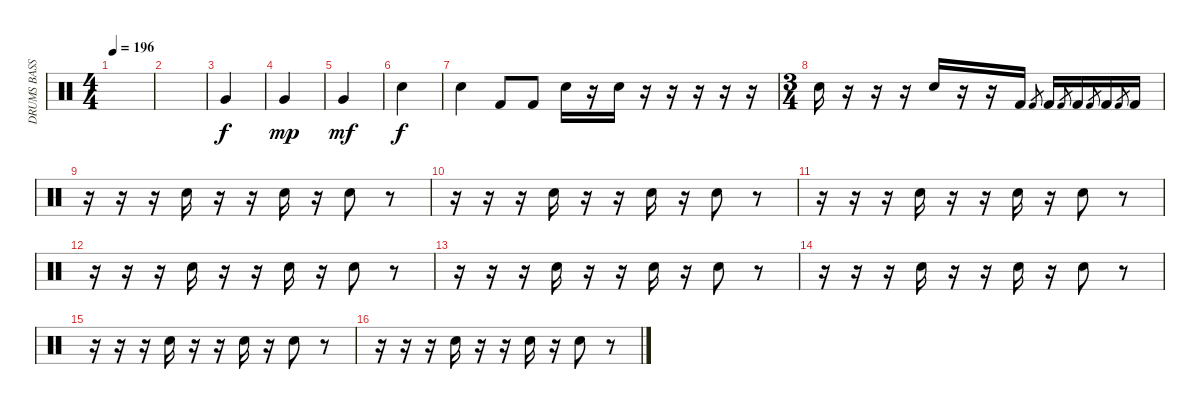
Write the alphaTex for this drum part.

\track ("DRUMS BASS" "DRUMS BASS") {instrument percussion}
\staff {score}
\articulation defaults
\ts (4 4)
\tempo 196
\clef neutral
\ks c
|
|
"Very Low Tom (hit)".4 |
"Very Low Tom (hit)".4{dy mp} |
"Very Low Tom (hit)".4{dy mf} |
"Electric Snare (hit)".4{dy f} |
"Electric Snare (hit)".4 "Kick (hit) 2".8 "Kick (hit) 2".8 "Electric Snare (hit)".16 r.16 "Electric Snare (hit)".16 r.16 r.16 r.16 r.16 r.16 |
\ts (3 4)
"Electric Snare (hit)".16 r.16 r.16 r.16 "Electric Snare (hit)".16 r.16 r.16 "Kick (hit) 2".16 "Kick (hit) 2".8{gr} "Kick (hit) 2".16 "Kick (hit) 2".8{gr} "Kick (hit) 2".16 "Kick (hit) 2".8{gr} "Kick (hit) 2".16 "Kick (hit) 2".8{gr} "Kick (hit) 2".16 |
r.16 r.16 r.16 "Electric Snare (hit)".16 r.16 r.16 "Electric Snare (hit)".16 r.16 "Electric Snare (hit)".8 r.8 |
r.16 r.16 r.16 "Electric Snare (hit)".16 r.16 r.16 "Electric Snare (hit)".16 r.16 "Electric Snare (hit)".8 r.8 |
r.16 r.16 r.16 "Electric Snare (hit)".16 r.16 r.16 "Electric Snare (hit)".16 r.16 "Electric Snare (hit)".8 r.8 |
r.16 r.16 r.16 "Electric Snare (hit)".16 r.16 r.16 "Electric Snare (hit)".16 r.16 "Electric Snare (hit)".8 r.8 |
r.16 r.16 r.16 "Electric Snare (hit)".16 r.16 r.16 "Electric Snare (hit)".16 r.16 "Electric Snare (hit)".8 r.8 |
r.16 r.16 r.16 "Electric Snare (hit)".16 r.16 r.16 "Electric Snare (hit)".16 r.16 "Electric Snare (hit)".8 r.8 |
r.16 r.16 r.16 "Electric Snare (hit)".16 r.16 r.16 "Electric Snare (hit)".16 r.16 "Electric Snare (hit)".8 r.8 |
r.16 r.16 r.16 "Electric Snare (hit)".16 r.16 r.16 "Electric Snare (hit)".16 r.16 "Electric Snare (hit)".8 r.8
